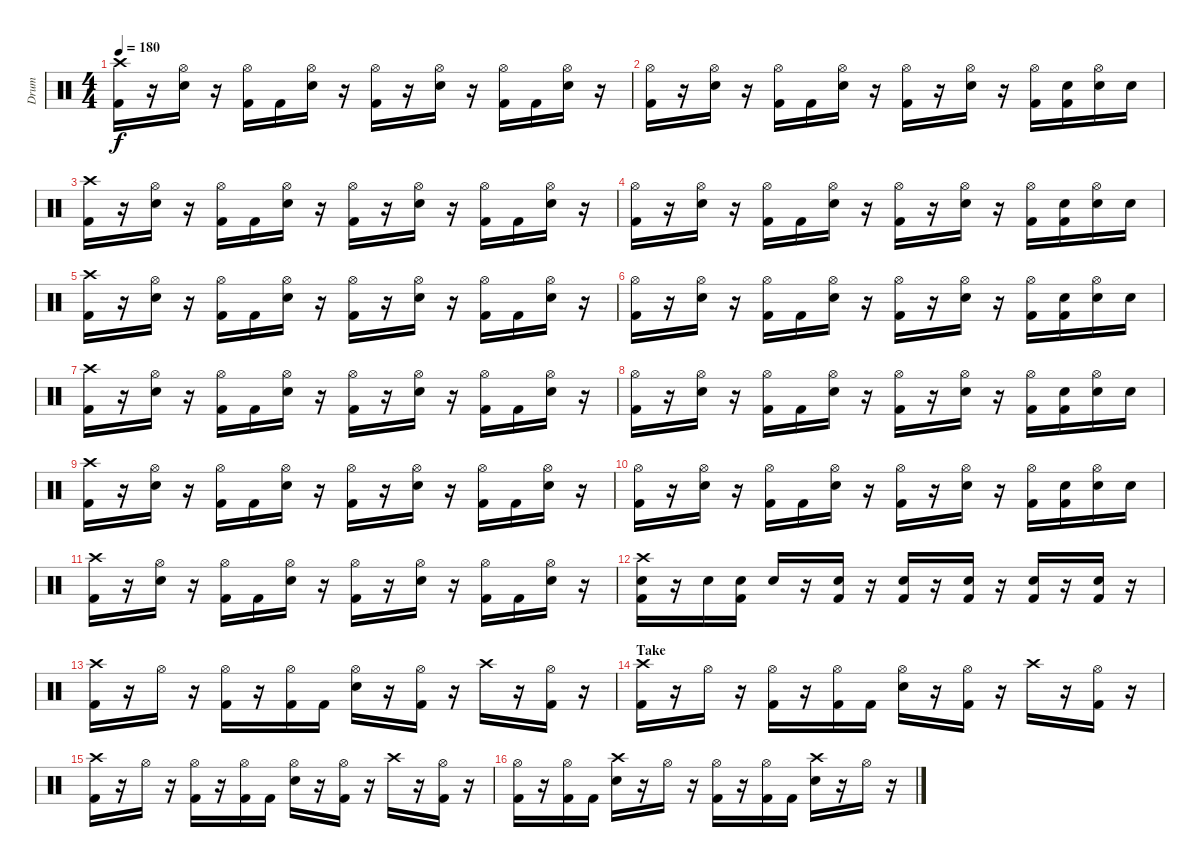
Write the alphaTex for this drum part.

\track ("Drum" "Drum") {instrument percussion}
\staff {score}
\articulation defaults
\ts (4 4)
\tempo 180
\clef neutral
\ks c
("Crash high (hit)" "Kick (hit) 2").16{dy f} r.16 ("Hi-Hat (open)" "Electric Snare (hit)").16 r.16 ("Hi-Hat (open)" "Kick (hit) 2").16 "Kick (hit) 2".16 ("Hi-Hat (open)" "Electric Snare (hit)").16 r.16 ("Hi-Hat (open)" "Kick (hit) 2").16 r.16 ("Hi-Hat (open)" "Electric Snare (hit)").16 r.16 ("Hi-Hat (open)" "Kick (hit) 2").16 "Kick (hit) 2".16 ("Hi-Hat (open)" "Electric Snare (hit)").16 r.16 |
("Hi-Hat (open)" "Kick (hit) 2").16 r.16 ("Hi-Hat (open)" "Electric Snare (hit)").16 r.16 ("Hi-Hat (open)" "Kick (hit) 2").16 "Kick (hit) 2".16 ("Hi-Hat (open)" "Electric Snare (hit)").16 r.16 ("Hi-Hat (open)" "Kick (hit) 2").16 r.16 ("Hi-Hat (open)" "Electric Snare (hit)").16 r.16 ("Hi-Hat (open)" "Kick (hit) 2").16 ("Electric Snare (hit)" "Kick (hit) 2").16 ("Hi-Hat (open)" "Electric Snare (hit)").16 "Electric Snare (hit)".16 |
("Crash high (hit)" "Kick (hit) 2").16 r.16 ("Hi-Hat (open)" "Electric Snare (hit)").16 r.16 ("Hi-Hat (open)" "Kick (hit) 2").16 "Kick (hit) 2".16 ("Hi-Hat (open)" "Electric Snare (hit)").16 r.16 ("Hi-Hat (open)" "Kick (hit) 2").16 r.16 ("Hi-Hat (open)" "Electric Snare (hit)").16 r.16 ("Hi-Hat (open)" "Kick (hit) 2").16 "Kick (hit) 2".16 ("Hi-Hat (open)" "Electric Snare (hit)").16 r.16 |
("Hi-Hat (open)" "Kick (hit) 2").16 r.16 ("Hi-Hat (open)" "Electric Snare (hit)").16 r.16 ("Hi-Hat (open)" "Kick (hit) 2").16 "Kick (hit) 2".16 ("Hi-Hat (open)" "Electric Snare (hit)").16 r.16 ("Hi-Hat (open)" "Kick (hit) 2").16 r.16 ("Hi-Hat (open)" "Electric Snare (hit)").16 r.16 ("Hi-Hat (open)" "Kick (hit) 2").16 ("Electric Snare (hit)" "Kick (hit) 2").16 ("Hi-Hat (open)" "Electric Snare (hit)").16 "Electric Snare (hit)".16 |
("Crash high (hit)" "Kick (hit) 2").16 r.16 ("Hi-Hat (open)" "Electric Snare (hit)").16 r.16 ("Hi-Hat (open)" "Kick (hit) 2").16 "Kick (hit) 2".16 ("Hi-Hat (open)" "Electric Snare (hit)").16 r.16 ("Hi-Hat (open)" "Kick (hit) 2").16 r.16 ("Hi-Hat (open)" "Electric Snare (hit)").16 r.16 ("Hi-Hat (open)" "Kick (hit) 2").16 "Kick (hit) 2".16 ("Hi-Hat (open)" "Electric Snare (hit)").16 r.16 |
("Hi-Hat (open)" "Kick (hit) 2").16 r.16 ("Hi-Hat (open)" "Electric Snare (hit)").16 r.16 ("Hi-Hat (open)" "Kick (hit) 2").16 "Kick (hit) 2".16 ("Hi-Hat (open)" "Electric Snare (hit)").16 r.16 ("Hi-Hat (open)" "Kick (hit) 2").16 r.16 ("Hi-Hat (open)" "Electric Snare (hit)").16 r.16 ("Hi-Hat (open)" "Kick (hit) 2").16 ("Electric Snare (hit)" "Kick (hit) 2").16 ("Hi-Hat (open)" "Electric Snare (hit)").16 "Electric Snare (hit)".16 |
("Crash high (hit)" "Kick (hit) 2").16 r.16 ("Hi-Hat (open)" "Electric Snare (hit)").16 r.16 ("Hi-Hat (open)" "Kick (hit) 2").16 "Kick (hit) 2".16 ("Hi-Hat (open)" "Electric Snare (hit)").16 r.16 ("Hi-Hat (open)" "Kick (hit) 2").16 r.16 ("Hi-Hat (open)" "Electric Snare (hit)").16 r.16 ("Hi-Hat (open)" "Kick (hit) 2").16 "Kick (hit) 2".16 ("Hi-Hat (open)" "Electric Snare (hit)").16 r.16 |
("Hi-Hat (open)" "Kick (hit) 2").16 r.16 ("Hi-Hat (open)" "Electric Snare (hit)").16 r.16 ("Hi-Hat (open)" "Kick (hit) 2").16 "Kick (hit) 2".16 ("Hi-Hat (open)" "Electric Snare (hit)").16 r.16 ("Hi-Hat (open)" "Kick (hit) 2").16 r.16 ("Hi-Hat (open)" "Electric Snare (hit)").16 r.16 ("Hi-Hat (open)" "Kick (hit) 2").16 ("Electric Snare (hit)" "Kick (hit) 2").16 ("Hi-Hat (open)" "Electric Snare (hit)").16 "Electric Snare (hit)".16 |
("Crash high (hit)" "Kick (hit) 2").16 r.16 ("Hi-Hat (open)" "Electric Snare (hit)").16 r.16 ("Hi-Hat (open)" "Kick (hit) 2").16 "Kick (hit) 2".16 ("Hi-Hat (open)" "Electric Snare (hit)").16 r.16 ("Hi-Hat (open)" "Kick (hit) 2").16 r.16 ("Hi-Hat (open)" "Electric Snare (hit)").16 r.16 ("Hi-Hat (open)" "Kick (hit) 2").16 "Kick (hit) 2".16 ("Hi-Hat (open)" "Electric Snare (hit)").16 r.16 |
("Hi-Hat (open)" "Kick (hit) 2").16 r.16 ("Hi-Hat (open)" "Electric Snare (hit)").16 r.16 ("Hi-Hat (open)" "Kick (hit) 2").16 "Kick (hit) 2".16 ("Hi-Hat (open)" "Electric Snare (hit)").16 r.16 ("Hi-Hat (open)" "Kick (hit) 2").16 r.16 ("Hi-Hat (open)" "Electric Snare (hit)").16 r.16 ("Hi-Hat (open)" "Kick (hit) 2").16 ("Electric Snare (hit)" "Kick (hit) 2").16 ("Hi-Hat (open)" "Electric Snare (hit)").16 "Electric Snare (hit)".16 |
("Crash high (hit)" "Kick (hit) 2").16 r.16 ("Hi-Hat (open)" "Electric Snare (hit)").16 r.16 ("Hi-Hat (open)" "Kick (hit) 2").16 "Kick (hit) 2".16 ("Hi-Hat (open)" "Electric Snare (hit)").16 r.16 ("Hi-Hat (open)" "Kick (hit) 2").16 r.16 ("Hi-Hat (open)" "Electric Snare (hit)").16 r.16 ("Hi-Hat (open)" "Kick (hit) 2").16 "Kick (hit) 2".16 ("Hi-Hat (open)" "Electric Snare (hit)").16 r.16 |
("Crash high (hit)" "Electric Snare (hit)" "Kick (hit) 2").16 r.16 "Electric Snare (hit)".16 ("Electric Snare (hit)" "Kick (hit) 2").16 "Electric Snare (hit)".16 r.16 ("Electric Snare (hit)" "Kick (hit) 2").16 r.16 ("Electric Snare (hit)" "Kick (hit) 2").16 r.16 ("Electric Snare (hit)" "Kick (hit) 2").16 r.16 ("Electric Snare (hit)" "Kick (hit) 2").16 r.16 ("Electric Snare (hit)" "Kick (hit) 2").16 r.16 |
("Crash high (hit)" "Kick (hit) 2").16 r.16 "Hi-Hat (open)".16 r.16 ("Hi-Hat (open)" "Kick (hit) 2").16 r.16 ("Hi-Hat (open)" "Kick (hit) 2").16 "Kick (hit) 2".16 ("Hi-Hat (open)" "Electric Snare (hit)").16 r.16 ("Hi-Hat (open)" "Kick (hit) 2").16 r.16 "Crash high (hit)".16 r.16 ("Hi-Hat (open)" "Kick (hit) 2").16 r.16 |
\section ("" "Take")
("Crash high (hit)" "Kick (hit) 2").16 r.16 "Hi-Hat (open)".16 r.16 ("Hi-Hat (open)" "Kick (hit) 2").16 r.16 ("Hi-Hat (open)" "Kick (hit) 2").16 "Kick (hit) 2".16 ("Hi-Hat (open)" "Electric Snare (hit)").16 r.16 ("Hi-Hat (open)" "Kick (hit) 2").16 r.16 "Crash high (hit)".16 r.16 ("Hi-Hat (open)" "Kick (hit) 2").16 r.16 |
("Crash high (hit)" "Kick (hit) 2").16 r.16 "Hi-Hat (open)".16 r.16 ("Hi-Hat (open)" "Kick (hit) 2").16 r.16 ("Hi-Hat (open)" "Kick (hit) 2").16 "Kick (hit) 2".16 ("Hi-Hat (open)" "Electric Snare (hit)").16 r.16 ("Hi-Hat (open)" "Kick (hit) 2").16 r.16 "Crash high (hit)".16 r.16 ("Hi-Hat (open)" "Kick (hit) 2").16 r.16 |
("Hi-Hat (open)" "Kick (hit) 2").16 r.16 ("Hi-Hat (open)" "Kick (hit) 2").16 "Kick (hit) 2".16 ("Crash high (hit)" "Electric Snare (hit)").16 r.16 "Hi-Hat (open)".16 r.16 ("Hi-Hat (open)" "Kick (hit) 2").16 r.16 ("Hi-Hat (open)" "Kick (hit) 2").16 "Kick (hit) 2".16 ("Crash high (hit)" "Electric Snare (hit)").16 r.16 "Hi-Hat (open)".16 r.16
